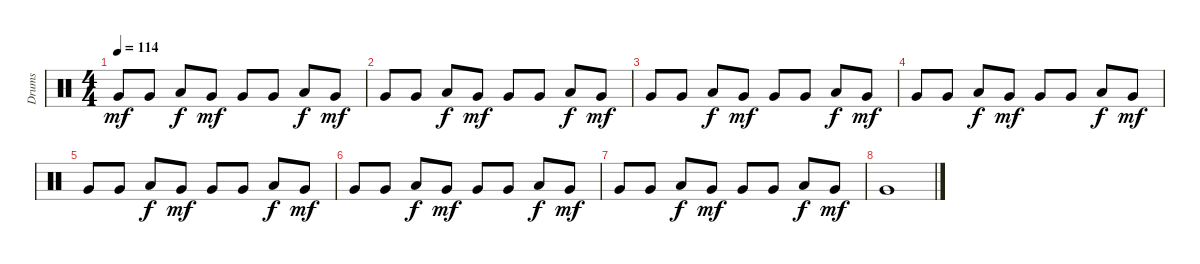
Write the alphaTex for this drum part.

\track ("Drums" "Drums") {instrument percussion}
\staff {score}
\articulation defaults
\ts (4 4)
\tempo 114
\clef neutral
\ks c "Very Low Tom (hit)".8{dy mf} "Very Low Tom (hit)".8 "Low Tom (hit)".8{dy f} "Very Low Tom (hit)".8{dy mf} "Very Low Tom (hit)".8 "Very Low Tom (hit)".8 "Low Tom (hit)".8{dy f} "Very Low Tom (hit)".8{dy mf}
|
"Very Low Tom (hit)".8 "Very Low Tom (hit)".8 "Low Tom (hit)".8{dy f} "Very Low Tom (hit)".8{dy mf} "Very Low Tom (hit)".8 "Very Low Tom (hit)".8 "Low Tom (hit)".8{dy f} "Very Low Tom (hit)".8{dy mf} |
"Very Low Tom (hit)".8 "Very Low Tom (hit)".8 "Low Tom (hit)".8{dy f} "Very Low Tom (hit)".8{dy mf} "Very Low Tom (hit)".8 "Very Low Tom (hit)".8 "Low Tom (hit)".8{dy f} "Very Low Tom (hit)".8{dy mf} |
"Very Low Tom (hit)".8 "Very Low Tom (hit)".8 "Low Tom (hit)".8{dy f} "Very Low Tom (hit)".8{dy mf} "Very Low Tom (hit)".8 "Very Low Tom (hit)".8 "Low Tom (hit)".8{dy f} "Very Low Tom (hit)".8{dy mf} |
"Very Low Tom (hit)".8 "Very Low Tom (hit)".8 "Low Tom (hit)".8{dy f} "Very Low Tom (hit)".8{dy mf} "Very Low Tom (hit)".8 "Very Low Tom (hit)".8 "Low Tom (hit)".8{dy f} "Very Low Tom (hit)".8{dy mf} |
"Very Low Tom (hit)".8 "Very Low Tom (hit)".8 "Low Tom (hit)".8{dy f} "Very Low Tom (hit)".8{dy mf} "Very Low Tom (hit)".8 "Very Low Tom (hit)".8 "Low Tom (hit)".8{dy f} "Very Low Tom (hit)".8{dy mf} |
"Very Low Tom (hit)".8 "Very Low Tom (hit)".8 "Low Tom (hit)".8{dy f} "Very Low Tom (hit)".8{dy mf} "Very Low Tom (hit)".8 "Very Low Tom (hit)".8 "Low Tom (hit)".8{dy f} "Very Low Tom (hit)".8{dy mf} |
"Very Low Tom (hit)".1
